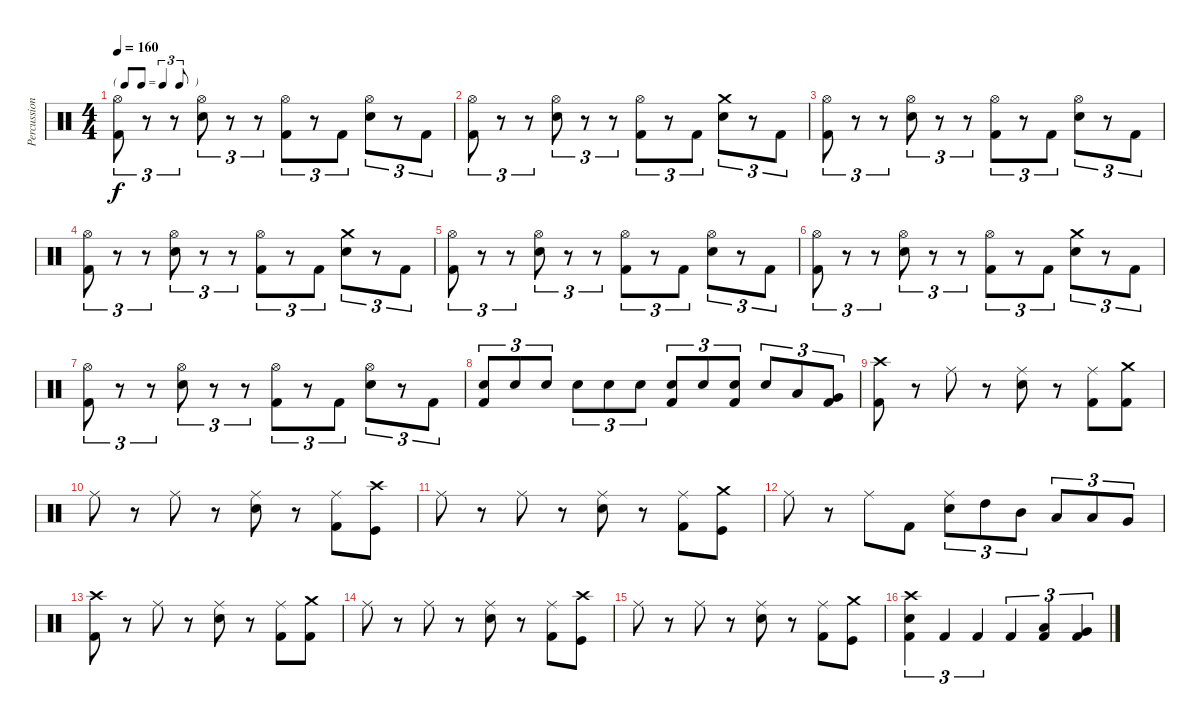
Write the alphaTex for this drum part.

\track ("Percussion" "Percussion") {instrument percussion}
\staff {score}
\articulation defaults
\ts (4 4)
\tf triplet8th
\tempo 160
\clef neutral
\ks c
("Hi-Hat (open)" "Kick (hit) 2").8{tu (3 2) dy f} r.8{tu (3 2)} r.8{tu (3 2)} ("Hi-Hat (open)" "Electric Snare (hit)").8{tu (3 2)} r.8{tu (3 2)} r.8{tu (3 2)} ("Hi-Hat (open)" "Kick (hit) 2").8{tu (3 2)} r.8{tu (3 2)} "Kick (hit) 2".8{tu (3 2)} ("Hi-Hat (open)" "Electric Snare (hit)").8{tu (3 2)} r.8{tu (3 2)} "Kick (hit) 2".8{tu (3 2)} |
("Hi-Hat (open)" "Kick (hit) 2").8{tu (3 2)} r.8{tu (3 2)} r.8{tu (3 2)} ("Hi-Hat (open)" "Electric Snare (hit)").8{tu (3 2)} r.8{tu (3 2)} r.8{tu (3 2)} ("Hi-Hat (open)" "Kick (hit) 2").8{tu (3 2)} r.8{tu (3 2)} "Kick (hit) 2".8{tu (3 2)} ("Crash medium (hit)" "Electric Snare (hit)").8{tu (3 2)} r.8{tu (3 2)} "Kick (hit) 2".8{tu (3 2)} |
("Hi-Hat (open)" "Kick (hit) 2").8{tu (3 2)} r.8{tu (3 2)} r.8{tu (3 2)} ("Hi-Hat (open)" "Electric Snare (hit)").8{tu (3 2)} r.8{tu (3 2)} r.8{tu (3 2)} ("Hi-Hat (open)" "Kick (hit) 2").8{tu (3 2)} r.8{tu (3 2)} "Kick (hit) 2".8{tu (3 2)} ("Hi-Hat (open)" "Electric Snare (hit)").8{tu (3 2)} r.8{tu (3 2)} "Kick (hit) 2".8{tu (3 2)} |
("Hi-Hat (open)" "Kick (hit) 2").8{tu (3 2)} r.8{tu (3 2)} r.8{tu (3 2)} ("Hi-Hat (open)" "Electric Snare (hit)").8{tu (3 2)} r.8{tu (3 2)} r.8{tu (3 2)} ("Hi-Hat (open)" "Kick (hit) 2").8{tu (3 2)} r.8{tu (3 2)} "Kick (hit) 2".8{tu (3 2)} ("Crash medium (hit)" "Electric Snare (hit)").8{tu (3 2)} r.8{tu (3 2)} "Kick (hit) 2".8{tu (3 2)} |
("Hi-Hat (open)" "Kick (hit) 2").8{tu (3 2)} r.8{tu (3 2)} r.8{tu (3 2)} ("Hi-Hat (open)" "Electric Snare (hit)").8{tu (3 2)} r.8{tu (3 2)} r.8{tu (3 2)} ("Hi-Hat (open)" "Kick (hit) 2").8{tu (3 2)} r.8{tu (3 2)} "Kick (hit) 2".8{tu (3 2)} ("Hi-Hat (open)" "Electric Snare (hit)").8{tu (3 2)} r.8{tu (3 2)} "Kick (hit) 2".8{tu (3 2)} |
("Hi-Hat (open)" "Kick (hit) 2").8{tu (3 2)} r.8{tu (3 2)} r.8{tu (3 2)} ("Hi-Hat (open)" "Electric Snare (hit)").8{tu (3 2)} r.8{tu (3 2)} r.8{tu (3 2)} ("Hi-Hat (open)" "Kick (hit) 2").8{tu (3 2)} r.8{tu (3 2)} "Kick (hit) 2".8{tu (3 2)} ("Crash medium (hit)" "Electric Snare (hit)").8{tu (3 2)} r.8{tu (3 2)} "Kick (hit) 2".8{tu (3 2)} |
("Hi-Hat (open)" "Kick (hit) 2").8{tu (3 2)} r.8{tu (3 2)} r.8{tu (3 2)} ("Hi-Hat (open)" "Electric Snare (hit)").8{tu (3 2)} r.8{tu (3 2)} r.8{tu (3 2)} ("Hi-Hat (open)" "Kick (hit) 2").8{tu (3 2)} r.8{tu (3 2)} "Kick (hit) 2".8{tu (3 2)} ("Hi-Hat (open)" "Electric Snare (hit)").8{tu (3 2)} r.8{tu (3 2)} "Kick (hit) 2".8{tu (3 2)} |
("Electric Snare (hit)" "Kick (hit) 2").8{tu (3 2)} "Electric Snare (hit)".8{tu (3 2)} "Electric Snare (hit)".8{tu (3 2)} "Electric Snare (hit)".8{tu (3 2)} "Electric Snare (hit)".8{tu (3 2)} "Electric Snare (hit)".8{tu (3 2)} ("Electric Snare (hit)" "Kick (hit) 2").8{tu (3 2)} "Electric Snare (hit)".8{tu (3 2)} ("Electric Snare (hit)" "Kick (hit) 2").8{tu (3 2)} "Electric Snare (hit)".8{tu (3 2)} "Low Tom (hit)".8{tu (3 2)} ("Very Low Tom (hit)" "Kick (hit) 2").8{tu (3 2)} |
("Crash high (hit)" "Kick (hit) 2").8 r.8 "Ride (middle)".8 r.8 ("Ride (middle)" "Electric Snare (hit)").8 r.8 ("Ride (middle)" "Kick (hit) 2").8 ("Crash medium (hit)" "Kick (hit) 2").8 |
"Ride (middle)".8 r.8 "Ride (middle)".8 r.8 ("Ride (middle)" "Electric Snare (hit)").8 r.8 ("Ride (middle)" "Kick (hit) 2").8 ("Crash high (hit)" "Kick (hit)").8 |
"Ride (middle)".8 r.8 "Ride (middle)".8 r.8 ("Ride (middle)" "Electric Snare (hit)").8 r.8 ("Ride (middle)" "Kick (hit) 2").8 ("Crash medium (hit)" "Kick (hit)").8 |
"Ride (middle)".8 r.8 "Ride (middle)".8 "Kick (hit) 2".8 ("Ride (middle)" "Electric Snare (hit)").8{tu (3 2)} "High Tom (hit)".8{tu (3 2)} "Mid Tom (hit)".8{tu (3 2)} "Low Tom (hit)".8{tu (3 2)} "Low Tom (hit)".8{tu (3 2)} "Very Low Tom (hit)".8{tu (3 2)} |
("Crash high (hit)" "Kick (hit) 2").8 r.8 "Ride (middle)".8 r.8 ("Ride (middle)" "Electric Snare (hit)").8 r.8 ("Ride (middle)" "Kick (hit) 2").8 ("Crash medium (hit)" "Kick (hit) 2").8 |
"Ride (middle)".8 r.8 "Ride (middle)".8 r.8 ("Ride (middle)" "Electric Snare (hit)").8 r.8 ("Ride (middle)" "Kick (hit) 2").8 ("Crash high (hit)" "Kick (hit)").8 |
"Ride (middle)".8 r.8 "Ride (middle)".8 r.8 ("Ride (middle)" "Electric Snare (hit)").8 r.8 ("Ride (middle)" "Kick (hit) 2").8 ("Crash medium (hit)" "Kick (hit)").8 |
("Crash high (hit)" "Electric Snare (hit)" "Kick (hit) 2").4{tu (3 2)} "Kick (hit) 2".4{tu (3 2)} "Kick (hit) 2".4{tu (3 2)} "Kick (hit) 2".4{tu (3 2)} ("Low Tom (hit)" "Kick (hit) 2").4{tu (3 2)} ("Very Low Tom (hit)" "Kick (hit) 2").4{tu (3 2)}
